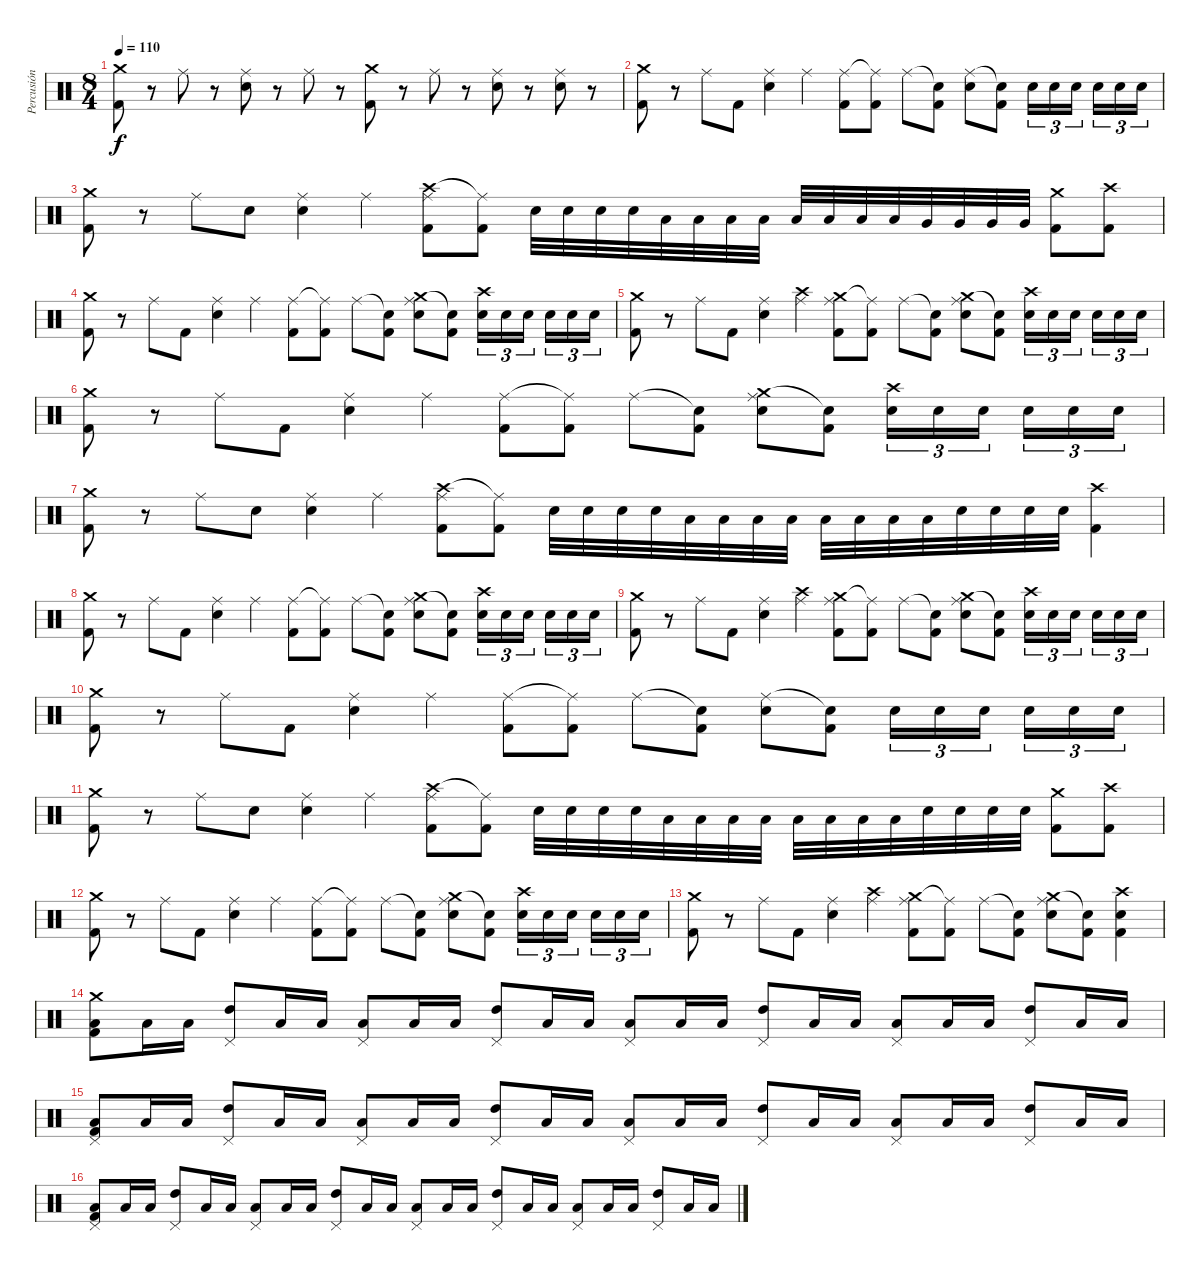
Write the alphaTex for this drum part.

\track ("Percusión" "Percusión") {instrument percussion}
\staff {score}
\articulation defaults
\ts (8 4)
\tempo 110
\clef neutral
\ks c
("Crash medium (hit)" "Kick (hit) 2").8{dy f} r.8 "Ride (middle)".8 r.8 ("Ride (middle)" "Electric Snare (hit)").8 r.8 "Ride (middle)".8 r.8 ("Crash medium (hit)" "Kick (hit) 2").8 r.8 "Ride (middle)".8 r.8 ("Ride (middle)" "Electric Snare (hit)").8 r.8 ("Ride (middle)" "Electric Snare (hit)").8 r.8 |
("Crash medium (hit)" "Kick (hit) 2").8 r.8 "Ride (middle)".8 "Kick (hit) 2".8 ("Ride (middle)" "Electric Snare (hit)").4 "Ride (middle)".4 ("Ride (middle)" "Kick (hit) 2").8 ("Ride (middle)"{t} "Kick (hit) 2").8 "Ride (middle)".8 ("Snare (hit)"{t} "Kick (hit) 2").8 ("Ride (middle)" "Electric Snare (hit)").8 ("Snare (hit)"{t} "Kick (hit) 2").8 "Electric Snare (hit)".16{tu (3 2)} "Electric Snare (hit)".16{tu (3 2)} "Electric Snare (hit)".16{tu (3 2) beam splitsecondary} "Electric Snare (hit)".16{tu (3 2)} "Electric Snare (hit)".16{tu (3 2)} "Electric Snare (hit)".16{tu (3 2)} |
("Crash medium (hit)" "Kick (hit) 2").8 r.8 "Ride (middle)".8 "Electric Snare (hit)".8 ("Ride (middle)" "Electric Snare (hit)").4 "Ride (middle)".4 ("Crash high (hit)" "Ride (middle)" "Kick (hit) 2").8 ("Ride (middle)"{t} "Kick (hit) 2").8 "Electric Snare (hit)".32 "Electric Snare (hit)".32 "Electric Snare (hit)".32 "Electric Snare (hit)".32 "Low Tom (hit)".32 "Low Tom (hit)".32 "Low Tom (hit)".32 "Low Tom (hit)".32 "Low Floor Tom (hit)".32 "Low Floor Tom (hit)".32 "Low Floor Tom (hit)".32 "Low Floor Tom (hit)".32 "Very Low Tom (hit)".32 "Very Low Tom (hit)".32 "Very Low Tom (hit)".32 "Very Low Tom (hit)".32 ("Crash medium (hit)" "Kick (hit) 2").8 ("Crash high (hit)" "Kick (hit) 2").8 |
("Crash medium (hit)" "Kick (hit) 2").8 r.8 "Ride (middle)".8 "Kick (hit) 2".8 ("Ride (middle)" "Electric Snare (hit)").4 "Ride (middle)".4 ("Ride (middle)" "Kick (hit) 2").8 ("Ride (middle)"{t} "Kick (hit) 2").8 "Ride (middle)".8 ("Snare (hit)"{t} "Kick (hit) 2").8 ("Crash medium (hit)" "Ride (middle)" "Electric Snare (hit)").8 ("Snare (hit)"{t} "Kick (hit) 2").8 ("Crash high (hit)" "Electric Snare (hit)").16{tu (3 2)} "Electric Snare (hit)".16{tu (3 2)} "Electric Snare (hit)".16{tu (3 2) beam splitsecondary} "Electric Snare (hit)".16{tu (3 2)} "Electric Snare (hit)".16{tu (3 2)} "Electric Snare (hit)".16{tu (3 2)} |
("Crash medium (hit)" "Kick (hit) 2").8 r.8 "Ride (middle)".8 "Kick (hit) 2".8 ("Ride (middle)" "Electric Snare (hit)").4 ("Crash high (hit)" "Ride (middle)").4 ("Crash medium (hit)" "Ride (middle)" "Kick (hit) 2").8 ("Ride (middle)"{t} "Kick (hit) 2").8 "Ride (middle)".8 ("Snare (hit)"{t} "Kick (hit) 2").8 ("Crash medium (hit)" "Ride (middle)" "Electric Snare (hit)").8 ("Snare (hit)"{t} "Kick (hit) 2").8 ("Crash high (hit)" "Electric Snare (hit)").16{tu (3 2)} "Electric Snare (hit)".16{tu (3 2)} "Electric Snare (hit)".16{tu (3 2) beam splitsecondary} "Electric Snare (hit)".16{tu (3 2)} "Electric Snare (hit)".16{tu (3 2)} "Electric Snare (hit)".16{tu (3 2)} |
("Crash medium (hit)" "Kick (hit) 2").8 r.8 "Ride (middle)".8 "Kick (hit) 2".8 ("Ride (middle)" "Electric Snare (hit)").4 "Ride (middle)".4 ("Ride (middle)" "Kick (hit) 2").8 ("Ride (middle)"{t} "Kick (hit) 2").8 "Ride (middle)".8 ("Snare (hit)"{t} "Kick (hit) 2").8 ("Crash medium (hit)" "Ride (middle)" "Electric Snare (hit)").8 ("Snare (hit)"{t} "Kick (hit) 2").8 ("Crash high (hit)" "Electric Snare (hit)").16{tu (3 2)} "Electric Snare (hit)".16{tu (3 2)} "Electric Snare (hit)".16{tu (3 2) beam splitsecondary} "Electric Snare (hit)".16{tu (3 2)} "Electric Snare (hit)".16{tu (3 2)} "Electric Snare (hit)".16{tu (3 2)} |
("Crash medium (hit)" "Kick (hit) 2").8 r.8 "Ride (middle)".8 "Electric Snare (hit)".8 ("Ride (middle)" "Electric Snare (hit)").4 "Ride (middle)".4 ("Crash high (hit)" "Ride (middle)" "Kick (hit) 2").8 ("Ride (middle)"{t} "Kick (hit) 2").8 "Electric Snare (hit)".32 "Electric Snare (hit)".32 "Electric Snare (hit)".32 "Electric Snare (hit)".32 "Low Tom (hit)".32 "Low Tom (hit)".32 "Low Tom (hit)".32 "Low Tom (hit)".32 "Low Floor Tom (hit)".32 "Low Floor Tom (hit)".32 "Low Floor Tom (hit)".32 "Low Floor Tom (hit)".32 "Electric Snare (hit)".32 "Electric Snare (hit)".32 "Electric Snare (hit)".32 "Electric Snare (hit)".32 ("Crash high (hit)" "Kick (hit) 2").4 |
("Crash medium (hit)" "Kick (hit) 2").8 r.8 "Ride (middle)".8 "Kick (hit) 2".8 ("Ride (middle)" "Electric Snare (hit)").4 "Ride (middle)".4 ("Ride (middle)" "Kick (hit) 2").8 ("Ride (middle)"{t} "Kick (hit) 2").8 "Ride (middle)".8 ("Snare (hit)"{t} "Kick (hit) 2").8 ("Crash medium (hit)" "Ride (middle)" "Electric Snare (hit)").8 ("Snare (hit)"{t} "Kick (hit) 2").8 ("Crash high (hit)" "Electric Snare (hit)").16{tu (3 2)} "Electric Snare (hit)".16{tu (3 2)} "Electric Snare (hit)".16{tu (3 2) beam splitsecondary} "Electric Snare (hit)".16{tu (3 2)} "Electric Snare (hit)".16{tu (3 2)} "Electric Snare (hit)".16{tu (3 2)} |
("Crash medium (hit)" "Kick (hit) 2").8 r.8 "Ride (middle)".8 "Kick (hit) 2".8 ("Ride (middle)" "Electric Snare (hit)").4 ("Crash high (hit)" "Ride (middle)").4 ("Crash medium (hit)" "Ride (middle)" "Kick (hit) 2").8 ("Ride (middle)"{t} "Kick (hit) 2").8 "Ride (middle)".8 ("Snare (hit)"{t} "Kick (hit) 2").8 ("Crash medium (hit)" "Ride (middle)" "Electric Snare (hit)").8 ("Snare (hit)"{t} "Kick (hit) 2").8 ("Crash high (hit)" "Electric Snare (hit)").16{tu (3 2)} "Electric Snare (hit)".16{tu (3 2)} "Electric Snare (hit)".16{tu (3 2) beam splitsecondary} "Electric Snare (hit)".16{tu (3 2)} "Electric Snare (hit)".16{tu (3 2)} "Electric Snare (hit)".16{tu (3 2)} |
("Crash medium (hit)" "Kick (hit) 2").8 r.8 "Ride (middle)".8 "Kick (hit) 2".8 ("Ride (middle)" "Electric Snare (hit)").4 "Ride (middle)".4 ("Ride (middle)" "Kick (hit) 2").8 ("Ride (middle)"{t} "Kick (hit) 2").8 "Ride (middle)".8 ("Snare (hit)"{t} "Kick (hit) 2").8 ("Ride (middle)" "Electric Snare (hit)").8 ("Snare (hit)"{t} "Kick (hit) 2").8 "Electric Snare (hit)".16{tu (3 2)} "Electric Snare (hit)".16{tu (3 2)} "Electric Snare (hit)".16{tu (3 2) beam splitsecondary} "Electric Snare (hit)".16{tu (3 2)} "Electric Snare (hit)".16{tu (3 2)} "Electric Snare (hit)".16{tu (3 2)} |
("Crash medium (hit)" "Kick (hit) 2").8 r.8 "Ride (middle)".8 "Electric Snare (hit)".8 ("Ride (middle)" "Electric Snare (hit)").4 "Ride (middle)".4 ("Crash high (hit)" "Ride (middle)" "Kick (hit) 2").8 ("Ride (middle)"{t} "Kick (hit) 2").8 "Electric Snare (hit)".32 "Electric Snare (hit)".32 "Electric Snare (hit)".32 "Electric Snare (hit)".32 "Low Tom (hit)".32 "Low Tom (hit)".32 "Low Tom (hit)".32 "Low Tom (hit)".32 "Low Floor Tom (hit)".32 "Low Floor Tom (hit)".32 "Low Floor Tom (hit)".32 "Low Floor Tom (hit)".32 "Electric Snare (hit)".32 "Electric Snare (hit)".32 "Electric Snare (hit)".32 "Electric Snare (hit)".32 ("Crash medium (hit)" "Kick (hit) 2").8 ("Crash high (hit)" "Kick (hit) 2").8 |
("Crash medium (hit)" "Kick (hit) 2").8 r.8 "Ride (middle)".8 "Kick (hit) 2".8 ("Ride (middle)" "Electric Snare (hit)").4 "Ride (middle)".4 ("Ride (middle)" "Kick (hit) 2").8 ("Ride (middle)"{t} "Kick (hit) 2").8 "Ride (middle)".8 ("Snare (hit)"{t} "Kick (hit) 2").8 ("Crash medium (hit)" "Ride (middle)" "Electric Snare (hit)").8 ("Snare (hit)"{t} "Kick (hit) 2").8 ("Crash high (hit)" "Electric Snare (hit)").16{tu (3 2)} "Electric Snare (hit)".16{tu (3 2)} "Electric Snare (hit)".16{tu (3 2) beam splitsecondary} "Electric Snare (hit)".16{tu (3 2)} "Electric Snare (hit)".16{tu (3 2)} "Electric Snare (hit)".16{tu (3 2)} |
("Crash medium (hit)" "Kick (hit) 2").8 r.8 "Ride (middle)".8 "Kick (hit) 2".8 ("Ride (middle)" "Electric Snare (hit)").4 ("Crash high (hit)" "Ride (middle)").4 ("Crash medium (hit)" "Ride (middle)" "Kick (hit) 2").8 ("Ride (middle)"{t} "Kick (hit) 2").8 "Ride (middle)".8 ("Snare (hit)"{t} "Kick (hit) 2").8 ("Crash medium (hit)" "Ride (middle)" "Electric Snare (hit)").8 ("Snare (hit)"{t} "Kick (hit) 2").8 ("Crash high (hit)" "Electric Snare (hit)" "Kick (hit) 2").4 |
("Crash medium (hit)" "Low Floor Tom (hit)" "Kick (hit) 2").8 "Low Floor Tom (hit)".16 "Low Floor Tom (hit)".16 ("Pedal Hi-Hat (hit)" "High Tom (hit)").8 "Low Floor Tom (hit)".16 "Low Floor Tom (hit)".16 ("Pedal Hi-Hat (hit)" "Low Floor Tom (hit)").8 "Low Floor Tom (hit)".16 "Low Floor Tom (hit)".16 ("Pedal Hi-Hat (hit)" "High Tom (hit)").8 "Low Floor Tom (hit)".16 "Low Floor Tom (hit)".16 ("Pedal Hi-Hat (hit)" "Low Floor Tom (hit)").8 "Low Floor Tom (hit)".16 "Low Floor Tom (hit)".16 ("Pedal Hi-Hat (hit)" "High Tom (hit)").8 "Low Floor Tom (hit)".16 "Low Floor Tom (hit)".16 ("Pedal Hi-Hat (hit)" "Low Floor Tom (hit)").8 "Low Floor Tom (hit)".16 "Low Floor Tom (hit)".16 ("Pedal Hi-Hat (hit)" "High Tom (hit)").8 "Low Floor Tom (hit)".16 "Low Floor Tom (hit)".16 |
("Pedal Hi-Hat (hit)" "Low Floor Tom (hit)" "Kick (hit) 2").8 "Low Floor Tom (hit)".16 "Low Floor Tom (hit)".16 ("Pedal Hi-Hat (hit)" "High Tom (hit)").8 "Low Floor Tom (hit)".16 "Low Floor Tom (hit)".16 ("Pedal Hi-Hat (hit)" "Low Floor Tom (hit)").8 "Low Floor Tom (hit)".16 "Low Floor Tom (hit)".16 ("Pedal Hi-Hat (hit)" "High Tom (hit)").8 "Low Floor Tom (hit)".16 "Low Floor Tom (hit)".16 ("Pedal Hi-Hat (hit)" "Low Floor Tom (hit)").8 "Low Floor Tom (hit)".16 "Low Floor Tom (hit)".16 ("Pedal Hi-Hat (hit)" "High Tom (hit)").8 "Low Floor Tom (hit)".16 "Low Floor Tom (hit)".16 ("Pedal Hi-Hat (hit)" "Low Floor Tom (hit)").8 "Low Floor Tom (hit)".16 "Low Floor Tom (hit)".16 ("Pedal Hi-Hat (hit)" "High Tom (hit)").8 "Low Floor Tom (hit)".16 "Low Floor Tom (hit)".16 |
("Pedal Hi-Hat (hit)" "Low Floor Tom (hit)" "Kick (hit) 2").8 "Low Floor Tom (hit)".16 "Low Floor Tom (hit)".16 ("Pedal Hi-Hat (hit)" "High Tom (hit)").8 "Low Floor Tom (hit)".16 "Low Floor Tom (hit)".16 ("Pedal Hi-Hat (hit)" "Low Floor Tom (hit)").8 "Low Floor Tom (hit)".16 "Low Floor Tom (hit)".16 ("Pedal Hi-Hat (hit)" "High Tom (hit)").8 "Low Floor Tom (hit)".16 "Low Floor Tom (hit)".16 ("Pedal Hi-Hat (hit)" "Low Floor Tom (hit)").8 "Low Floor Tom (hit)".16 "Low Floor Tom (hit)".16 ("Pedal Hi-Hat (hit)" "High Tom (hit)").8 "Low Floor Tom (hit)".16 "Low Floor Tom (hit)".16 ("Pedal Hi-Hat (hit)" "Low Floor Tom (hit)").8 "Low Floor Tom (hit)".16 "Low Floor Tom (hit)".16 ("Pedal Hi-Hat (hit)" "High Tom (hit)").8 "Low Floor Tom (hit)".16 "Low Floor Tom (hit)".16
